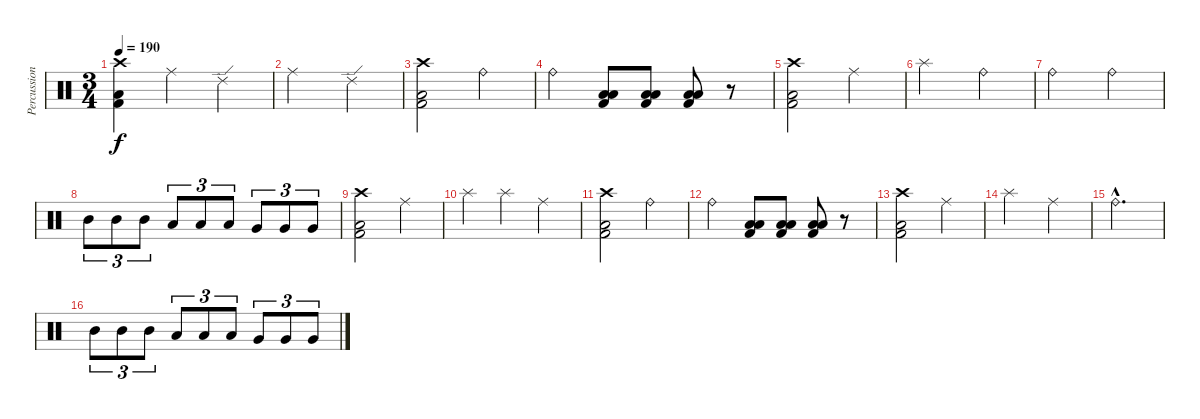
\track ("Percussion" "Percussion") {instrument percussion}
\staff {score}
\articulation defaults
\ts (3 4)
\tempo 190
\clef neutral
\ks c
("Crash high (hit)" "Low Floor Tom (hit)" "Kick (hit) 2").4{dy f} "Ride (middle)".4 "Ride (edge) 2".4 |
"Ride (middle)".2 "Ride (edge) 2".4 |
("Crash high (hit)" "Low Floor Tom (hit)" "Kick (hit) 2").2 "Ride (bell)".4 |
"Ride (bell)".4 ("Low Tom (hit)" "Low Floor Tom (hit)" "Kick (hit) 2").8 ("Low Tom (hit)" "Low Floor Tom (hit)" "Kick (hit) 2").8 ("Low Tom (hit)" "Low Floor Tom (hit)" "Kick (hit) 2").8 r.8 |
("Crash high (hit)" "Low Floor Tom (hit)" "Kick (hit) 2").2 "Ride (middle)".4 |
"Splash (hit)".2 "Ride (bell)".4 |
"Ride (bell)".2 "Ride (bell)".4 |
"Mid Tom (hit)".8{tu (3 2)} "Mid Tom (hit)".8{tu (3 2)} "Mid Tom (hit)".8{tu (3 2)} "Low Tom (hit)".8{tu (3 2)} "Low Tom (hit)".8{tu (3 2)} "Low Tom (hit)".8{tu (3 2)} "Very Low Tom (hit)".8{tu (3 2)} "Very Low Tom (hit)".8{tu (3 2)} "Very Low Tom (hit)".8{tu (3 2)} |
("Crash high (hit)" "Low Floor Tom (hit)" "Kick (hit) 2").2 "Ride (middle)".4 |
"Splash (hit)".4 "Splash (hit)".4 "Ride (middle)".4 |
("Crash high (hit)" "Low Floor Tom (hit)" "Kick (hit) 2").2 "Ride (bell)".4 |
"Ride (bell)".4 ("Low Tom (hit)" "Low Floor Tom (hit)" "Kick (hit) 2").8 ("Low Tom (hit)" "Low Floor Tom (hit)" "Kick (hit) 2").8 ("Low Tom (hit)" "Low Floor Tom (hit)" "Kick (hit) 2").8 r.8 |
("Crash high (hit)" "Low Floor Tom (hit)" "Kick (hit) 2").2 "Ride (middle)".4 |
"Splash (hit)".2 "Ride (middle)".4 |
"Ride (bell)"{hac}.2{d} |
"Mid Tom (hit)".8{tu (3 2)} "Mid Tom (hit)".8{tu (3 2)} "Mid Tom (hit)".8{tu (3 2)} "Low Tom (hit)".8{tu (3 2)} "Low Tom (hit)".8{tu (3 2)} "Low Tom (hit)".8{tu (3 2)} "Very Low Tom (hit)".8{tu (3 2)} "Very Low Tom (hit)".8{tu (3 2)} "Very Low Tom (hit)".8{tu (3 2)}
